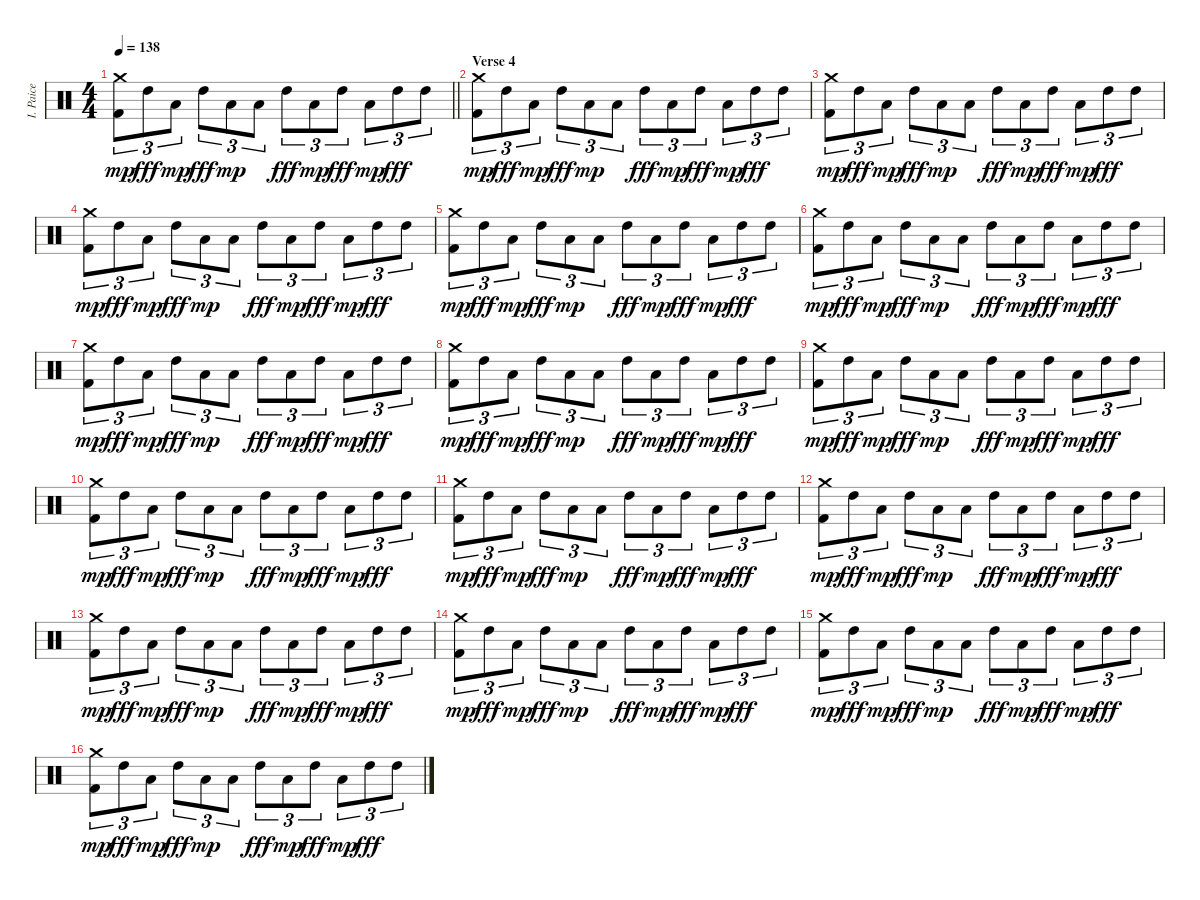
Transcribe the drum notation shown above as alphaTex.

\track ("I. Paice" "I. Paice") {instrument percussion}
\staff {score}
\articulation defaults
\ts (4 4)
\tempo 138
\clef neutral
\barLineRight lightlight
\ks c
("Crash medium (hit)" "Kick (hit) 2").8{tu (3 2) dy mp} "High Tom (hit)".8{tu (3 2) dy fff} "Low Tom (hit)".8{tu (3 2) dy mp} "High Tom (hit)".8{tu (3 2) dy fff} "Low Tom (hit)".8{tu (3 2) dy mp} "Low Tom (hit)".8{tu (3 2)} "High Tom (hit)".8{tu (3 2) dy fff} "Low Tom (hit)".8{tu (3 2) dy mp} "High Tom (hit)".8{tu (3 2) dy fff} "Low Tom (hit)".8{tu (3 2) dy mp} "High Tom (hit)".8{tu (3 2) dy fff} "High Tom (hit)".8{tu (3 2)} |
\section ("" "Verse 4")
("Crash medium (hit)" "Kick (hit) 2").8{tu (3 2) dy mp} "High Tom (hit)".8{tu (3 2) dy fff} "Low Tom (hit)".8{tu (3 2) dy mp} "High Tom (hit)".8{tu (3 2) dy fff} "Low Tom (hit)".8{tu (3 2) dy mp} "Low Tom (hit)".8{tu (3 2)} "High Tom (hit)".8{tu (3 2) dy fff} "Low Tom (hit)".8{tu (3 2) dy mp} "High Tom (hit)".8{tu (3 2) dy fff} "Low Tom (hit)".8{tu (3 2) dy mp} "High Tom (hit)".8{tu (3 2) dy fff} "High Tom (hit)".8{tu (3 2)} |
("Crash medium (hit)" "Kick (hit) 2").8{tu (3 2) dy mp} "High Tom (hit)".8{tu (3 2) dy fff} "Low Tom (hit)".8{tu (3 2) dy mp} "High Tom (hit)".8{tu (3 2) dy fff} "Low Tom (hit)".8{tu (3 2) dy mp} "Low Tom (hit)".8{tu (3 2)} "High Tom (hit)".8{tu (3 2) dy fff} "Low Tom (hit)".8{tu (3 2) dy mp} "High Tom (hit)".8{tu (3 2) dy fff} "Low Tom (hit)".8{tu (3 2) dy mp} "High Tom (hit)".8{tu (3 2) dy fff} "High Tom (hit)".8{tu (3 2)} |
("Crash medium (hit)" "Kick (hit) 2").8{tu (3 2) dy mp} "High Tom (hit)".8{tu (3 2) dy fff} "Low Tom (hit)".8{tu (3 2) dy mp} "High Tom (hit)".8{tu (3 2) dy fff} "Low Tom (hit)".8{tu (3 2) dy mp} "Low Tom (hit)".8{tu (3 2)} "High Tom (hit)".8{tu (3 2) dy fff} "Low Tom (hit)".8{tu (3 2) dy mp} "High Tom (hit)".8{tu (3 2) dy fff} "Low Tom (hit)".8{tu (3 2) dy mp} "High Tom (hit)".8{tu (3 2) dy fff} "High Tom (hit)".8{tu (3 2)} |
("Crash medium (hit)" "Kick (hit) 2").8{tu (3 2) dy mp} "High Tom (hit)".8{tu (3 2) dy fff} "Low Tom (hit)".8{tu (3 2) dy mp} "High Tom (hit)".8{tu (3 2) dy fff} "Low Tom (hit)".8{tu (3 2) dy mp} "Low Tom (hit)".8{tu (3 2)} "High Tom (hit)".8{tu (3 2) dy fff} "Low Tom (hit)".8{tu (3 2) dy mp} "High Tom (hit)".8{tu (3 2) dy fff} "Low Tom (hit)".8{tu (3 2) dy mp} "High Tom (hit)".8{tu (3 2) dy fff} "High Tom (hit)".8{tu (3 2)} |
("Crash medium (hit)" "Kick (hit) 2").8{tu (3 2) dy mp} "High Tom (hit)".8{tu (3 2) dy fff} "Low Tom (hit)".8{tu (3 2) dy mp} "High Tom (hit)".8{tu (3 2) dy fff} "Low Tom (hit)".8{tu (3 2) dy mp} "Low Tom (hit)".8{tu (3 2)} "High Tom (hit)".8{tu (3 2) dy fff} "Low Tom (hit)".8{tu (3 2) dy mp} "High Tom (hit)".8{tu (3 2) dy fff} "Low Tom (hit)".8{tu (3 2) dy mp} "High Tom (hit)".8{tu (3 2) dy fff} "High Tom (hit)".8{tu (3 2)} |
("Crash medium (hit)" "Kick (hit) 2").8{tu (3 2) dy mp} "High Tom (hit)".8{tu (3 2) dy fff} "Low Tom (hit)".8{tu (3 2) dy mp} "High Tom (hit)".8{tu (3 2) dy fff} "Low Tom (hit)".8{tu (3 2) dy mp} "Low Tom (hit)".8{tu (3 2)} "High Tom (hit)".8{tu (3 2) dy fff} "Low Tom (hit)".8{tu (3 2) dy mp} "High Tom (hit)".8{tu (3 2) dy fff} "Low Tom (hit)".8{tu (3 2) dy mp} "High Tom (hit)".8{tu (3 2) dy fff} "High Tom (hit)".8{tu (3 2)} |
("Crash medium (hit)" "Kick (hit) 2").8{tu (3 2) dy mp} "High Tom (hit)".8{tu (3 2) dy fff} "Low Tom (hit)".8{tu (3 2) dy mp} "High Tom (hit)".8{tu (3 2) dy fff} "Low Tom (hit)".8{tu (3 2) dy mp} "Low Tom (hit)".8{tu (3 2)} "High Tom (hit)".8{tu (3 2) dy fff} "Low Tom (hit)".8{tu (3 2) dy mp} "High Tom (hit)".8{tu (3 2) dy fff} "Low Tom (hit)".8{tu (3 2) dy mp} "High Tom (hit)".8{tu (3 2) dy fff} "High Tom (hit)".8{tu (3 2)} |
("Crash medium (hit)" "Kick (hit) 2").8{tu (3 2) dy mp} "High Tom (hit)".8{tu (3 2) dy fff} "Low Tom (hit)".8{tu (3 2) dy mp} "High Tom (hit)".8{tu (3 2) dy fff} "Low Tom (hit)".8{tu (3 2) dy mp} "Low Tom (hit)".8{tu (3 2)} "High Tom (hit)".8{tu (3 2) dy fff} "Low Tom (hit)".8{tu (3 2) dy mp} "High Tom (hit)".8{tu (3 2) dy fff} "Low Tom (hit)".8{tu (3 2) dy mp} "High Tom (hit)".8{tu (3 2) dy fff} "High Tom (hit)".8{tu (3 2)} |
("Crash medium (hit)" "Kick (hit) 2").8{tu (3 2) dy mp} "High Tom (hit)".8{tu (3 2) dy fff} "Low Tom (hit)".8{tu (3 2) dy mp} "High Tom (hit)".8{tu (3 2) dy fff} "Low Tom (hit)".8{tu (3 2) dy mp} "Low Tom (hit)".8{tu (3 2)} "High Tom (hit)".8{tu (3 2) dy fff} "Low Tom (hit)".8{tu (3 2) dy mp} "High Tom (hit)".8{tu (3 2) dy fff} "Low Tom (hit)".8{tu (3 2) dy mp} "High Tom (hit)".8{tu (3 2) dy fff} "High Tom (hit)".8{tu (3 2)} |
("Crash medium (hit)" "Kick (hit) 2").8{tu (3 2) dy mp} "High Tom (hit)".8{tu (3 2) dy fff} "Low Tom (hit)".8{tu (3 2) dy mp} "High Tom (hit)".8{tu (3 2) dy fff} "Low Tom (hit)".8{tu (3 2) dy mp} "Low Tom (hit)".8{tu (3 2)} "High Tom (hit)".8{tu (3 2) dy fff} "Low Tom (hit)".8{tu (3 2) dy mp} "High Tom (hit)".8{tu (3 2) dy fff} "Low Tom (hit)".8{tu (3 2) dy mp} "High Tom (hit)".8{tu (3 2) dy fff} "High Tom (hit)".8{tu (3 2)} |
("Crash medium (hit)" "Kick (hit) 2").8{tu (3 2) dy mp} "High Tom (hit)".8{tu (3 2) dy fff} "Low Tom (hit)".8{tu (3 2) dy mp} "High Tom (hit)".8{tu (3 2) dy fff} "Low Tom (hit)".8{tu (3 2) dy mp} "Low Tom (hit)".8{tu (3 2)} "High Tom (hit)".8{tu (3 2) dy fff} "Low Tom (hit)".8{tu (3 2) dy mp} "High Tom (hit)".8{tu (3 2) dy fff} "Low Tom (hit)".8{tu (3 2) dy mp} "High Tom (hit)".8{tu (3 2) dy fff} "High Tom (hit)".8{tu (3 2)} |
("Crash medium (hit)" "Kick (hit) 2").8{tu (3 2) dy mp} "High Tom (hit)".8{tu (3 2) dy fff} "Low Tom (hit)".8{tu (3 2) dy mp} "High Tom (hit)".8{tu (3 2) dy fff} "Low Tom (hit)".8{tu (3 2) dy mp} "Low Tom (hit)".8{tu (3 2)} "High Tom (hit)".8{tu (3 2) dy fff} "Low Tom (hit)".8{tu (3 2) dy mp} "High Tom (hit)".8{tu (3 2) dy fff} "Low Tom (hit)".8{tu (3 2) dy mp} "High Tom (hit)".8{tu (3 2) dy fff} "High Tom (hit)".8{tu (3 2)} |
("Crash medium (hit)" "Kick (hit) 2").8{tu (3 2) dy mp} "High Tom (hit)".8{tu (3 2) dy fff} "Low Tom (hit)".8{tu (3 2) dy mp} "High Tom (hit)".8{tu (3 2) dy fff} "Low Tom (hit)".8{tu (3 2) dy mp} "Low Tom (hit)".8{tu (3 2)} "High Tom (hit)".8{tu (3 2) dy fff} "Low Tom (hit)".8{tu (3 2) dy mp} "High Tom (hit)".8{tu (3 2) dy fff} "Low Tom (hit)".8{tu (3 2) dy mp} "High Tom (hit)".8{tu (3 2) dy fff} "High Tom (hit)".8{tu (3 2)} |
("Crash medium (hit)" "Kick (hit) 2").8{tu (3 2) dy mp} "High Tom (hit)".8{tu (3 2) dy fff} "Low Tom (hit)".8{tu (3 2) dy mp} "High Tom (hit)".8{tu (3 2) dy fff} "Low Tom (hit)".8{tu (3 2) dy mp} "Low Tom (hit)".8{tu (3 2)} "High Tom (hit)".8{tu (3 2) dy fff} "Low Tom (hit)".8{tu (3 2) dy mp} "High Tom (hit)".8{tu (3 2) dy fff} "Low Tom (hit)".8{tu (3 2) dy mp} "High Tom (hit)".8{tu (3 2) dy fff} "High Tom (hit)".8{tu (3 2)} |
("Crash medium (hit)" "Kick (hit) 2").8{tu (3 2) dy mp} "High Tom (hit)".8{tu (3 2) dy fff} "Low Tom (hit)".8{tu (3 2) dy mp} "High Tom (hit)".8{tu (3 2) dy fff} "Low Tom (hit)".8{tu (3 2) dy mp} "Low Tom (hit)".8{tu (3 2)} "High Tom (hit)".8{tu (3 2) dy fff} "Low Tom (hit)".8{tu (3 2) dy mp} "High Tom (hit)".8{tu (3 2) dy fff} "Low Tom (hit)".8{tu (3 2) dy mp} "High Tom (hit)".8{tu (3 2) dy fff} "High Tom (hit)".8{tu (3 2)}
